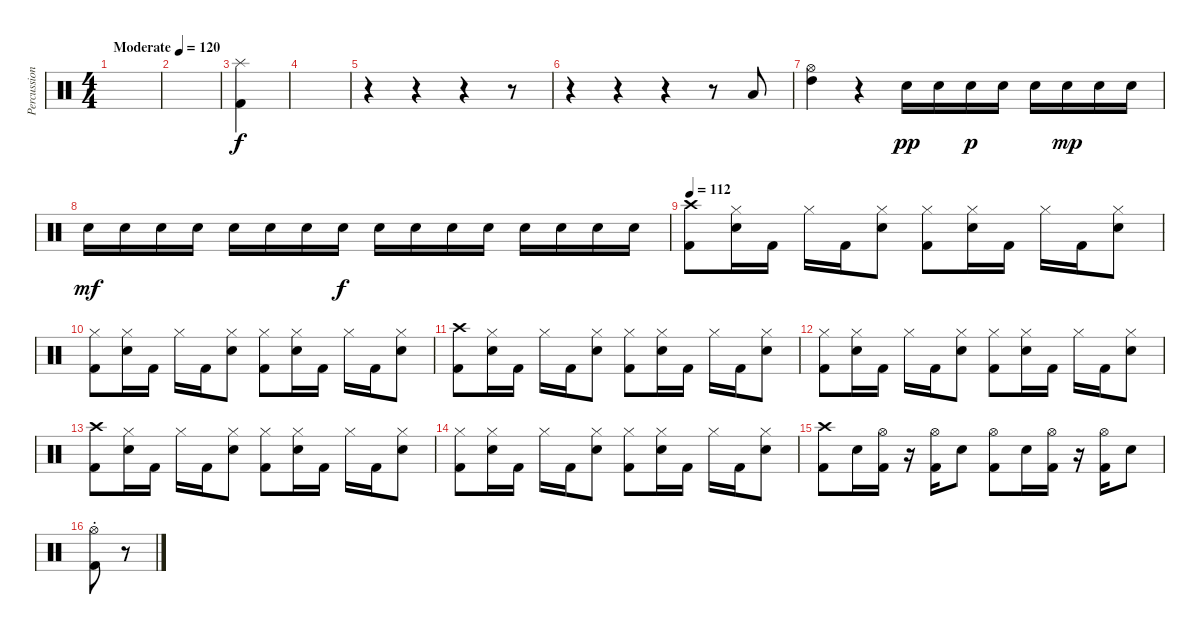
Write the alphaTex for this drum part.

\track ("Percussion" "Percussion") {instrument percussion}
\staff {score}
\articulation defaults
\ts (4 4)
\tempo (120 "Moderate")
\clef neutral
\ks c
|
|
("Splash (hit)" "Kick (hit) 2").4 |
|
r.4 r.4 r.4 r.8 |
r.4 r.4 r.4 r.8 "Low Tom (hit)".8 |
("Hi-Hat (open)" "High Tom (hit)").4 r.4 "Snare (hit) 2".16{dy pp} "Snare (hit) 2".16 "Snare (hit) 2".16{dy p} "Snare (hit) 2".16 "Snare (hit) 2".16 "Snare (hit) 2".16{dy mp} "Snare (hit) 2".16 "Snare (hit) 2".16 |
"Snare (hit) 2".16{dy mf} "Snare (hit) 2".16 "Snare (hit) 2".16 "Snare (hit) 2".16 "Snare (hit) 2".16 "Snare (hit) 2".16 "Snare (hit) 2".16 "Snare (hit) 2".16{dy f} "Snare (hit) 2".16 "Snare (hit) 2".16 "Snare (hit) 2".16 "Snare (hit) 2".16 "Snare (hit) 2".16 "Snare (hit) 2".16 "Snare (hit) 2".16 "Snare (hit) 2".16 |
\tempo 112
("Crash high (hit)" "Kick (hit) 2").8 ("Hi-Hat (closed)" "Snare (hit) 2").16 "Kick (hit) 2".16 "Hi-Hat (closed)".16 "Kick (hit) 2".16 ("Hi-Hat (closed)" "Snare (hit) 2").8 ("Hi-Hat (closed)" "Kick (hit) 2").8 ("Hi-Hat (closed)" "Snare (hit) 2").16 "Kick (hit) 2".16 "Hi-Hat (closed)".16 "Kick (hit) 2".16 ("Hi-Hat (closed)" "Snare (hit) 2").8 |
("Hi-Hat (closed)" "Kick (hit) 2").8 ("Hi-Hat (closed)" "Snare (hit) 2").16 "Kick (hit) 2".16 "Hi-Hat (closed)".16 "Kick (hit) 2".16 ("Hi-Hat (closed)" "Snare (hit) 2").8 ("Hi-Hat (closed)" "Kick (hit) 2").8 ("Hi-Hat (closed)" "Snare (hit) 2").16 "Kick (hit) 2".16 "Hi-Hat (closed)".16 "Kick (hit) 2".16 ("Hi-Hat (closed)" "Snare (hit) 2").8 |
("Crash high (hit)" "Kick (hit) 2").8 ("Hi-Hat (closed)" "Snare (hit) 2").16 "Kick (hit) 2".16 "Hi-Hat (closed)".16 "Kick (hit) 2".16 ("Hi-Hat (closed)" "Snare (hit) 2").8 ("Hi-Hat (closed)" "Kick (hit) 2").8 ("Hi-Hat (closed)" "Snare (hit) 2").16 "Kick (hit) 2".16 "Hi-Hat (closed)".16 "Kick (hit) 2".16 ("Hi-Hat (closed)" "Snare (hit) 2").8 |
("Hi-Hat (closed)" "Kick (hit) 2").8 ("Hi-Hat (closed)" "Snare (hit) 2").16 "Kick (hit) 2".16 "Hi-Hat (closed)".16 "Kick (hit) 2".16 ("Hi-Hat (closed)" "Snare (hit) 2").8 ("Hi-Hat (closed)" "Kick (hit) 2").8 ("Hi-Hat (closed)" "Snare (hit) 2").16 "Kick (hit) 2".16 "Hi-Hat (closed)".16 "Kick (hit) 2".16 ("Hi-Hat (closed)" "Snare (hit) 2").8 |
("Crash high (hit)" "Kick (hit) 2").8 ("Hi-Hat (closed)" "Snare (hit) 2").16 "Kick (hit) 2".16 "Hi-Hat (closed)".16 "Kick (hit) 2".16 ("Hi-Hat (closed)" "Snare (hit) 2").8 ("Hi-Hat (closed)" "Kick (hit) 2").8 ("Hi-Hat (closed)" "Snare (hit) 2").16 "Kick (hit) 2".16 "Hi-Hat (closed)".16 "Kick (hit) 2".16 ("Hi-Hat (closed)" "Snare (hit) 2").8 |
("Hi-Hat (closed)" "Kick (hit) 2").8 ("Hi-Hat (closed)" "Snare (hit) 2").16 "Kick (hit) 2".16 "Hi-Hat (closed)".16 "Kick (hit) 2".16 ("Hi-Hat (closed)" "Snare (hit) 2").8 ("Hi-Hat (closed)" "Kick (hit) 2").8 ("Hi-Hat (closed)" "Snare (hit) 2").16 "Kick (hit) 2".16 "Hi-Hat (closed)".16 "Kick (hit) 2".16 ("Hi-Hat (closed)" "Snare (hit) 2").8 |
("Crash high (hit)" "Kick (hit) 2").8 "Snare (hit) 2".16 ("Hi-Hat (open)" "Kick (hit) 2").16 r.16 ("Hi-Hat (open)" "Kick (hit) 2").16 "Snare (hit) 2".8 ("Hi-Hat (open)" "Kick (hit) 2").8 "Snare (hit) 2".16 ("Hi-Hat (open)" "Kick (hit) 2").16 r.16 ("Hi-Hat (open)" "Kick (hit) 2").16 "Snare (hit) 2".8 |
("Hi-Hat (open)"{st} "Kick (hit) 2").8 r.8
